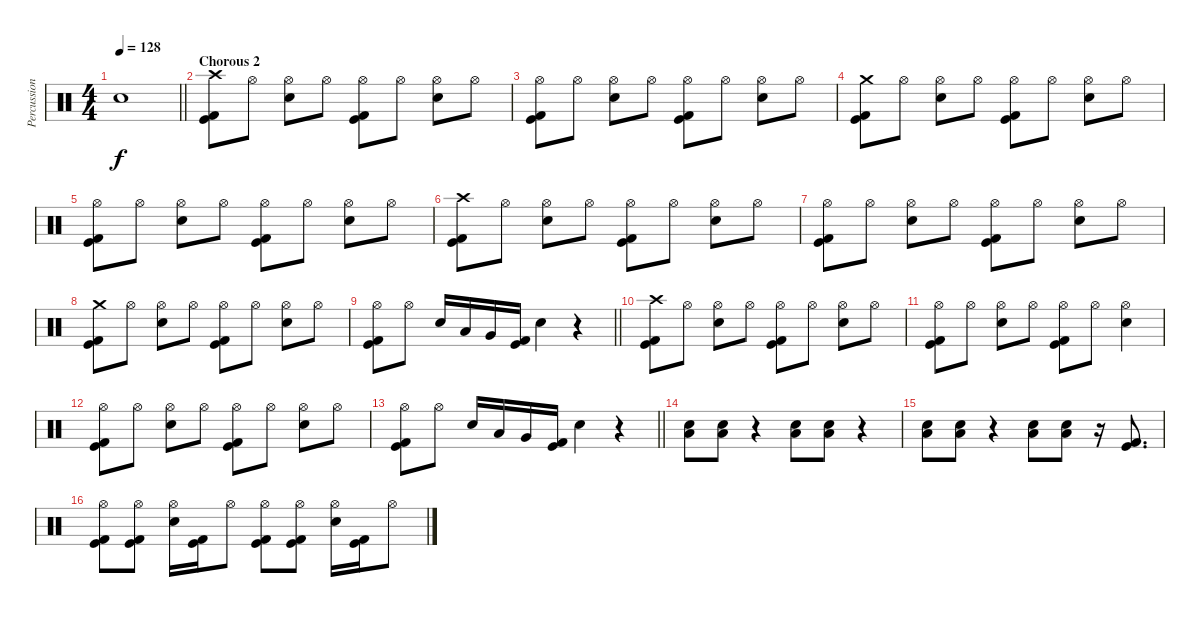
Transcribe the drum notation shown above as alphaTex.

\track ("Percussion" "Percussion") {instrument percussion}
\staff {score}
\articulation defaults
\ts (4 4)
\tempo 128
\clef neutral
\barLineRight lightlight
\ks c "Electric Snare (hit)".1{dy f}
|
\section ("" "Chorous 2")
("Crash high (hit)" "Kick (hit)" "Kick (hit) 2").8 "Hi-Hat (open)".8 ("Hi-Hat (open)" "Electric Snare (hit)").8 "Hi-Hat (open)".8 ("Hi-Hat (open)" "Kick (hit)" "Kick (hit) 2").8 "Hi-Hat (open)".8 ("Hi-Hat (open)" "Electric Snare (hit)").8 "Hi-Hat (open)".8 |
("Hi-Hat (open)" "Kick (hit)" "Kick (hit) 2").8 "Hi-Hat (open)".8 ("Hi-Hat (open)" "Electric Snare (hit)").8 "Hi-Hat (open)".8 ("Hi-Hat (open)" "Kick (hit)" "Kick (hit) 2").8 "Hi-Hat (open)".8 ("Hi-Hat (open)" "Electric Snare (hit)").8 "Hi-Hat (open)".8 |
("Crash medium (hit)" "Kick (hit)" "Kick (hit) 2").8 "Hi-Hat (open)".8 ("Hi-Hat (open)" "Electric Snare (hit)").8 "Hi-Hat (open)".8 ("Hi-Hat (open)" "Kick (hit)" "Kick (hit) 2").8 "Hi-Hat (open)".8 ("Hi-Hat (open)" "Electric Snare (hit)").8 "Hi-Hat (open)".8 |
("Hi-Hat (open)" "Kick (hit)" "Kick (hit) 2").8 "Hi-Hat (open)".8 ("Hi-Hat (open)" "Electric Snare (hit)").8 "Hi-Hat (open)".8 ("Hi-Hat (open)" "Kick (hit)" "Kick (hit) 2").8 "Hi-Hat (open)".8 ("Hi-Hat (open)" "Electric Snare (hit)").8 "Hi-Hat (open)".8 |
("Crash high (hit)" "Kick (hit)" "Kick (hit) 2").8 "Hi-Hat (open)".8 ("Hi-Hat (open)" "Electric Snare (hit)").8 "Hi-Hat (open)".8 ("Hi-Hat (open)" "Kick (hit)" "Kick (hit) 2").8 "Hi-Hat (open)".8 ("Hi-Hat (open)" "Electric Snare (hit)").8 "Hi-Hat (open)".8 |
("Hi-Hat (open)" "Kick (hit)" "Kick (hit) 2").8 "Hi-Hat (open)".8 ("Hi-Hat (open)" "Electric Snare (hit)").8 "Hi-Hat (open)".8 ("Hi-Hat (open)" "Kick (hit)" "Kick (hit) 2").8 "Hi-Hat (open)".8 ("Hi-Hat (open)" "Electric Snare (hit)").8 "Hi-Hat (open)".8 |
("Crash medium (hit)" "Kick (hit)" "Kick (hit) 2").8 "Hi-Hat (open)".8 ("Hi-Hat (open)" "Electric Snare (hit)").8 "Hi-Hat (open)".8 ("Hi-Hat (open)" "Kick (hit)" "Kick (hit) 2").8 "Hi-Hat (open)".8 ("Hi-Hat (open)" "Electric Snare (hit)").8 "Hi-Hat (open)".8 |
\barLineRight lightlight
("Hi-Hat (open)" "Kick (hit)" "Kick (hit) 2").8 "Hi-Hat (open)".8 "Electric Snare (hit)".16 "Low Tom (hit)".16 "Very Low Tom (hit)".16 ("Kick (hit)" "Kick (hit) 2").16 "Electric Snare (hit)".4 r.4 |
\section ("" "")
("Crash high (hit)" "Kick (hit)" "Kick (hit) 2").8 "Hi-Hat (open)".8 ("Hi-Hat (open)" "Electric Snare (hit)").8 "Hi-Hat (open)".8 ("Hi-Hat (open)" "Kick (hit)" "Kick (hit) 2").8 "Hi-Hat (open)".8 ("Hi-Hat (open)" "Electric Snare (hit)").8 "Hi-Hat (open)".8 |
("Hi-Hat (open)" "Kick (hit)" "Kick (hit) 2").8 "Hi-Hat (open)".8 ("Hi-Hat (open)" "Electric Snare (hit)").8 "Hi-Hat (open)".8 ("Hi-Hat (open)" "Kick (hit)" "Kick (hit) 2").8 "Hi-Hat (open)".8 ("Hi-Hat (open)" "Electric Snare (hit)").4 |
("Hi-Hat (open)" "Kick (hit)" "Kick (hit) 2").8 "Hi-Hat (open)".8 ("Hi-Hat (open)" "Electric Snare (hit)").8 "Hi-Hat (open)".8 ("Hi-Hat (open)" "Kick (hit)" "Kick (hit) 2").8 "Hi-Hat (open)".8 ("Hi-Hat (open)" "Electric Snare (hit)").8 "Hi-Hat (open)".8 |
\barLineRight lightlight
("Hi-Hat (open)" "Kick (hit)" "Kick (hit) 2").8 "Hi-Hat (open)".8 "Electric Snare (hit)".16 "Low Tom (hit)".16 "Very Low Tom (hit)".16 ("Kick (hit)" "Kick (hit) 2").16 "Electric Snare (hit)".4 r.4 |
\section ("" "")
("Electric Snare (hit)" "Low Floor Tom (hit)").8 ("Electric Snare (hit)" "Low Floor Tom (hit)").8 r.4 ("Electric Snare (hit)" "Low Floor Tom (hit)").8 ("Electric Snare (hit)" "Low Floor Tom (hit)").8 r.4 |
("Electric Snare (hit)" "Low Floor Tom (hit)").8 ("Electric Snare (hit)" "Low Floor Tom (hit)").8 r.4 ("Electric Snare (hit)" "Low Floor Tom (hit)").8 ("Electric Snare (hit)" "Low Floor Tom (hit)").8 r.16 ("Kick (hit)" "Kick (hit) 2").8{d} |
("Hi-Hat (open)" "Kick (hit)" "Kick (hit) 2").8 ("Hi-Hat (open)" "Kick (hit)" "Kick (hit) 2").8 ("Hi-Hat (open)" "Electric Snare (hit)").16 ("Kick (hit)" "Kick (hit) 2").16 "Hi-Hat (open)".8 ("Hi-Hat (open)" "Kick (hit)" "Kick (hit) 2").8 ("Hi-Hat (open)" "Kick (hit)" "Kick (hit) 2").8 ("Hi-Hat (open)" "Electric Snare (hit)").16 ("Kick (hit)" "Kick (hit) 2").16 "Hi-Hat (open)".8
